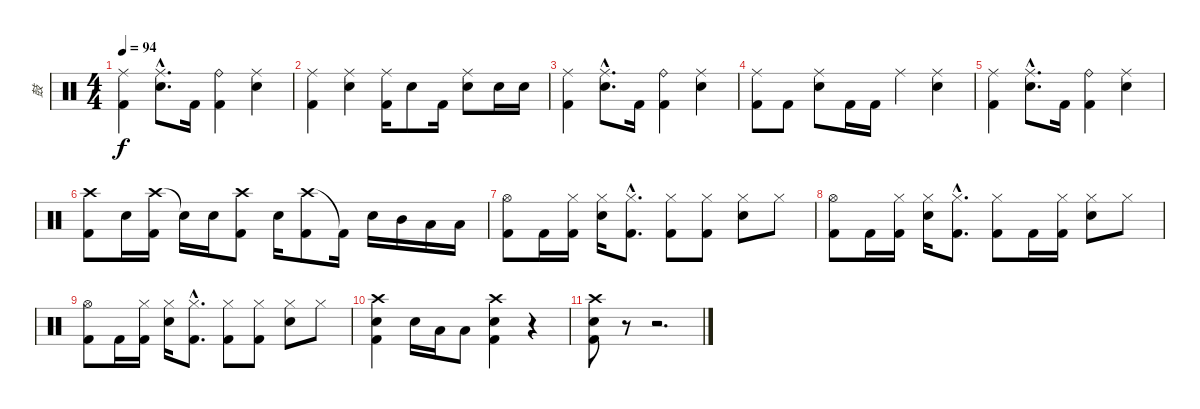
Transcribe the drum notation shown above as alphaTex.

\track ("鼓" "鼓") {instrument percussion}
\staff {score}
\articulation defaults
\ts (4 4)
\tempo 94
\clef neutral
\ks c
("Ride (middle)" "Kick (hit) 2").4{dy f} ("Ride (middle)"{hac} "Snare (hit) 2"{hac}).8{d} "Kick (hit) 2".16 ("Ride (bell)" "Kick (hit) 2").4 ("Ride (middle)" "Snare (hit) 2").4 |
("Ride (middle)" "Kick (hit) 2").4 ("Ride (middle)" "Snare (hit) 2").4 ("Ride (middle)" "Kick (hit) 2").16 "Snare (hit) 2".8 "Kick (hit) 2".16 ("Ride (middle)" "Snare (hit) 2").8 "Snare (hit) 2".16 "Snare (hit) 2".16 |
("Ride (middle)" "Kick (hit) 2").4 ("Ride (middle)"{hac} "Snare (hit) 2"{hac}).8{d} "Kick (hit) 2".16 ("Ride (bell)" "Kick (hit) 2").4 ("Ride (middle)" "Snare (hit) 2").4 |
("Ride (middle)" "Kick (hit) 2").8 "Kick (hit) 2".8 ("Ride (middle)" "Snare (hit) 2").8 "Kick (hit) 2".16 "Kick (hit) 2".16 "Ride (middle)".4 ("Ride (middle)" "Snare (hit) 2").4 |
("Ride (middle)" "Kick (hit) 2").4 ("Ride (middle)"{hac} "Snare (hit) 2"{hac}).8{d} "Kick (hit) 2".16 ("Ride (bell)" "Kick (hit) 2").4 ("Ride (middle)" "Snare (hit) 2").4 |
("Crash high (hit)" "Kick (hit) 2").8 "Snare (hit) 2".16 ("Crash high (hit)" "Kick (hit) 2").16 "Snare (hit)"{t}.16 "Snare (hit) 2".16 ("Crash high (hit)" "Kick (hit) 2").8 "Snare (hit) 2".16 ("Crash high (hit)" "Kick (hit) 2").8 "Kick (hit) 2"{t}.16 "Snare (hit) 2".16 "Mid Tom (hit)".16 "Low Tom (hit)".16 "Low Floor Tom (hit)".16 |
("Hi-Hat (open)" "Kick (hit) 2").8 "Kick (hit) 2".16 ("Hi-Hat (closed)" "Kick (hit) 2").16 ("Hi-Hat (closed)" "Snare (hit) 2").16 ("Hi-Hat (closed)"{hac} "Kick (hit) 2"{hac}).8{d} ("Hi-Hat (closed)" "Kick (hit) 2").8 ("Hi-Hat (closed)" "Kick (hit) 2").8 ("Hi-Hat (closed)" "Snare (hit) 2").8 "Hi-Hat (closed)".8 |
("Hi-Hat (open)" "Kick (hit) 2").8 "Kick (hit) 2".16 ("Hi-Hat (closed)" "Kick (hit) 2").16 ("Hi-Hat (closed)" "Snare (hit) 2").16 ("Hi-Hat (closed)"{hac} "Kick (hit) 2"{hac}).8{d} ("Hi-Hat (closed)" "Kick (hit) 2").8 "Kick (hit) 2".16 ("Hi-Hat (closed)" "Kick (hit) 2").16 ("Hi-Hat (closed)" "Snare (hit) 2").8 "Hi-Hat (closed)".8 |
("Hi-Hat (open)" "Kick (hit) 2").8 "Kick (hit) 2".16 ("Hi-Hat (closed)" "Kick (hit) 2").16 ("Hi-Hat (closed)" "Snare (hit) 2").16 ("Hi-Hat (closed)"{hac} "Kick (hit) 2"{hac}).8{d} ("Hi-Hat (closed)" "Kick (hit) 2").8 ("Hi-Hat (closed)" "Kick (hit) 2").8 ("Hi-Hat (closed)" "Snare (hit) 2").8 "Hi-Hat (closed)".8 |
("Crash high (hit)" "Snare (hit) 2" "Kick (hit) 2").4 "Snare (hit) 2".16 "Low Tom (hit)".16 "Low Floor Tom (hit)".8 ("Crash high (hit)" "Snare (hit) 2" "Kick (hit) 2").4 r.4 |
("Crash high (hit)" "Snare (hit) 2" "Kick (hit) 2").8 r.8 r.2{d}
